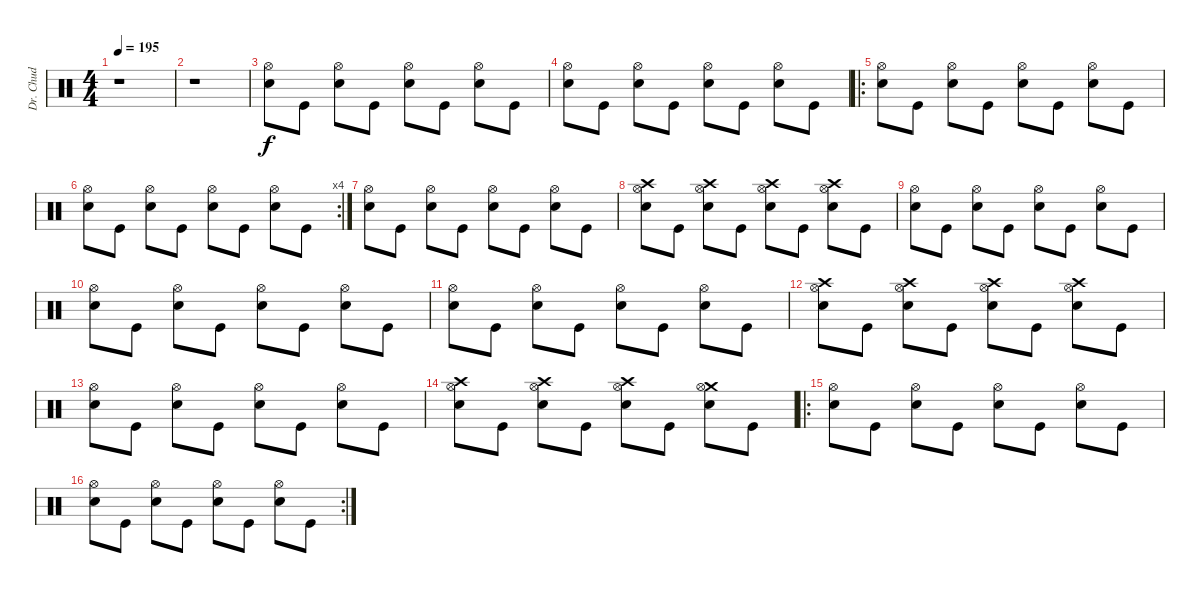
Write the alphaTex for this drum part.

\track ("Dr. Chud" "Dr. Chud") {instrument percussion}
\staff {score}
\articulation defaults
\ts (4 4)
\tempo 195
\clef neutral
\ks c
r.1{dy f} |
r.1 |
("Hi-Hat (open)" "Snare (hit) 2").8 "Kick (hit)".8 ("Hi-Hat (open)" "Snare (hit) 2").8 "Kick (hit)".8 ("Hi-Hat (open)" "Snare (hit) 2").8 "Kick (hit)".8 ("Hi-Hat (open)" "Snare (hit) 2").8 "Kick (hit)".8 |
("Hi-Hat (open)" "Snare (hit) 2").8 "Kick (hit)".8 ("Hi-Hat (open)" "Snare (hit) 2").8 "Kick (hit)".8 ("Hi-Hat (open)" "Snare (hit) 2").8 "Kick (hit)".8 ("Hi-Hat (open)" "Snare (hit) 2").8 "Kick (hit)".8 |
\ro
("Hi-Hat (open)" "Snare (hit) 2").8 "Kick (hit)".8 ("Hi-Hat (open)" "Snare (hit) 2").8 "Kick (hit)".8 ("Hi-Hat (open)" "Snare (hit) 2").8 "Kick (hit)".8 ("Hi-Hat (open)" "Snare (hit) 2").8 "Kick (hit)".8 |
\rc 4
("Hi-Hat (open)" "Snare (hit) 2").8 "Kick (hit)".8 ("Hi-Hat (open)" "Snare (hit) 2").8 "Kick (hit)".8 ("Hi-Hat (open)" "Snare (hit) 2").8 "Kick (hit)".8 ("Hi-Hat (open)" "Snare (hit) 2").8 "Kick (hit)".8 |
("Hi-Hat (open)" "Snare (hit) 2").8 "Kick (hit)".8 ("Hi-Hat (open)" "Snare (hit) 2").8 "Kick (hit)".8 ("Hi-Hat (open)" "Snare (hit) 2").8 "Kick (hit)".8 ("Hi-Hat (open)" "Snare (hit) 2").8 "Kick (hit)".8 |
("Crash high (hit)" "Hi-Hat (open)" "Snare (hit) 2").8 "Kick (hit)".8 ("Crash high (hit)" "Hi-Hat (open)" "Snare (hit) 2").8 "Kick (hit)".8 ("Crash high (hit)" "Hi-Hat (open)" "Snare (hit) 2").8 "Kick (hit)".8 ("Crash high (hit)" "Hi-Hat (open)" "Snare (hit) 2").8 "Kick (hit)".8 |
("Hi-Hat (open)" "Snare (hit) 2").8 "Kick (hit)".8 ("Hi-Hat (open)" "Snare (hit) 2").8 "Kick (hit)".8 ("Hi-Hat (open)" "Snare (hit) 2").8 "Kick (hit)".8 ("Hi-Hat (open)" "Snare (hit) 2").8 "Kick (hit)".8 |
("Hi-Hat (open)" "Snare (hit) 2").8 "Kick (hit)".8 ("Hi-Hat (open)" "Snare (hit) 2").8 "Kick (hit)".8 ("Hi-Hat (open)" "Snare (hit) 2").8 "Kick (hit)".8 ("Hi-Hat (open)" "Snare (hit) 2").8 "Kick (hit)".8 |
("Hi-Hat (open)" "Snare (hit) 2").8 "Kick (hit)".8 ("Hi-Hat (open)" "Snare (hit) 2").8 "Kick (hit)".8 ("Hi-Hat (open)" "Snare (hit) 2").8 "Kick (hit)".8 ("Hi-Hat (open)" "Snare (hit) 2").8 "Kick (hit)".8 |
("Crash high (hit)" "Hi-Hat (open)" "Snare (hit) 2").8 "Kick (hit)".8 ("Crash high (hit)" "Hi-Hat (open)" "Snare (hit) 2").8 "Kick (hit)".8 ("Crash high (hit)" "Hi-Hat (open)" "Snare (hit) 2").8 "Kick (hit)".8 ("Crash high (hit)" "Hi-Hat (open)" "Snare (hit) 2").8 "Kick (hit)".8 |
("Hi-Hat (open)" "Snare (hit) 2").8 "Kick (hit)".8 ("Hi-Hat (open)" "Snare (hit) 2").8 "Kick (hit)".8 ("Hi-Hat (open)" "Snare (hit) 2").8 "Kick (hit)".8 ("Hi-Hat (open)" "Snare (hit) 2").8 "Kick (hit)".8 |
("Crash high (hit)" "Hi-Hat (open)" "Snare (hit) 2").8 "Kick (hit)".8 ("Crash high (hit)" "Hi-Hat (open)" "Snare (hit) 2").8 "Kick (hit)".8 ("Crash high (hit)" "Hi-Hat (open)" "Snare (hit) 2").8 "Kick (hit)".8 ("Crash medium (hit)" "Hi-Hat (open)" "Snare (hit) 2").8 "Kick (hit)".8 |
\ro
("Hi-Hat (open)" "Snare (hit) 2").8 "Kick (hit)".8 ("Hi-Hat (open)" "Snare (hit) 2").8 "Kick (hit)".8 ("Hi-Hat (open)" "Snare (hit) 2").8 "Kick (hit)".8 ("Hi-Hat (open)" "Snare (hit) 2").8 "Kick (hit)".8 |
\rc 2
("Hi-Hat (open)" "Snare (hit) 2").8 "Kick (hit)".8 ("Hi-Hat (open)" "Snare (hit) 2").8 "Kick (hit)".8 ("Hi-Hat (open)" "Snare (hit) 2").8 "Kick (hit)".8 ("Hi-Hat (open)" "Snare (hit) 2").8 "Kick (hit)".8
